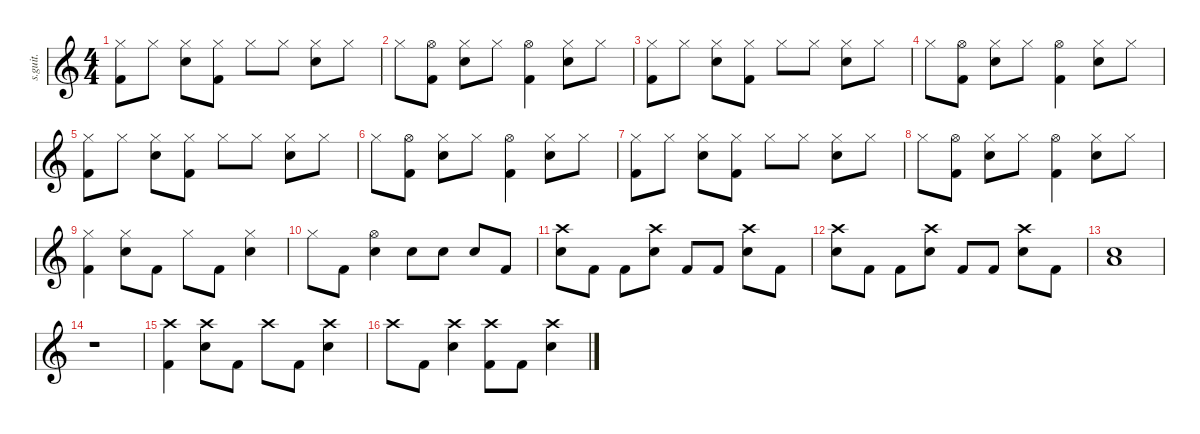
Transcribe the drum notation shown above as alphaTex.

\defaultSystemsLayout 4
\hideDynamics
\bracketExtendMode nobrackets
\track ("" "s.guit.") {instrument percussion}
\staff {score}
\articulation defaults
\ts (4 4)
\tempo (190 hide)
\clef g2
\ks c
("Hi-Hat (closed)" "Kick (hit) 2").8{dy f} "Hi-Hat (closed)".8 ("Hi-Hat (closed)" "Snare (hit) 2").8 ("Hi-Hat (closed)" "Kick (hit) 2").8 "Hi-Hat (closed)".8 "Hi-Hat (closed)".8 ("Hi-Hat (closed)" "Snare (hit) 2").8 "Hi-Hat (closed)".8 |
"Hi-Hat (closed)".8 ("Hi-Hat (open)" "Kick (hit) 2").8 ("Hi-Hat (closed)" "Snare (hit) 2").8 "Hi-Hat (closed)".8 ("Hi-Hat (open)" "Kick (hit) 2").4 ("Hi-Hat (closed)" "Snare (hit) 2").8 "Hi-Hat (closed)".8 |
("Hi-Hat (closed)" "Kick (hit) 2").8 "Hi-Hat (closed)".8 ("Hi-Hat (closed)" "Snare (hit) 2").8 ("Hi-Hat (closed)" "Kick (hit) 2").8 "Hi-Hat (closed)".8 "Hi-Hat (closed)".8 ("Hi-Hat (closed)" "Snare (hit) 2").8 "Hi-Hat (closed)".8 |
"Hi-Hat (closed)".8 ("Hi-Hat (open)" "Kick (hit) 2").8 ("Hi-Hat (closed)" "Snare (hit) 2").8 "Hi-Hat (closed)".8 ("Hi-Hat (open)" "Kick (hit) 2").4 ("Hi-Hat (closed)" "Snare (hit) 2").8 "Hi-Hat (closed)".8 |
("Hi-Hat (closed)" "Kick (hit) 2").8 "Hi-Hat (closed)".8 ("Hi-Hat (closed)" "Snare (hit) 2").8 ("Hi-Hat (closed)" "Kick (hit) 2").8 "Hi-Hat (closed)".8 "Hi-Hat (closed)".8 ("Hi-Hat (closed)" "Snare (hit) 2").8 "Hi-Hat (closed)".8 |
"Hi-Hat (closed)".8 ("Hi-Hat (open)" "Kick (hit) 2").8 ("Hi-Hat (closed)" "Snare (hit) 2").8 "Hi-Hat (closed)".8 ("Hi-Hat (open)" "Kick (hit) 2").4 ("Hi-Hat (closed)" "Snare (hit) 2").8 "Hi-Hat (closed)".8 |
("Hi-Hat (closed)" "Kick (hit) 2").8 "Hi-Hat (closed)".8 ("Hi-Hat (closed)" "Snare (hit) 2").8 ("Hi-Hat (closed)" "Kick (hit) 2").8 "Hi-Hat (closed)".8 "Hi-Hat (closed)".8 ("Hi-Hat (closed)" "Snare (hit) 2").8 "Hi-Hat (closed)".8 |
"Hi-Hat (closed)".8 ("Hi-Hat (open)" "Kick (hit) 2").8 ("Hi-Hat (closed)" "Snare (hit) 2").8 "Hi-Hat (closed)".8 ("Hi-Hat (open)" "Kick (hit) 2").4 ("Hi-Hat (closed)" "Snare (hit) 2").8 "Hi-Hat (closed)".8 |
("Hi-Hat (closed)" "Kick (hit) 2").4 ("Hi-Hat (closed)" "Snare (hit) 2").8 "Kick (hit) 2".8 "Hi-Hat (closed)".8 "Kick (hit) 2".8 ("Hi-Hat (closed)" "Snare (hit) 2").4 |
"Hi-Hat (closed)".8 "Kick (hit) 2".8 ("Hi-Hat (open)" "Snare (hit) 2").4 "Snare (hit) 2".8 "Snare (hit) 2".8 "Snare (hit) 2".8 "Kick (hit) 2".8 |
("Crash high (hit)" "Snare (hit) 2").8 "Kick (hit) 2".8 "Kick (hit) 2".8 ("Crash high (hit)" "Snare (hit) 2").8 "Kick (hit) 2".8 "Kick (hit) 2".8 ("Crash high (hit)" "Snare (hit) 2").8 "Kick (hit) 2".8 |
("Crash high (hit)" "Snare (hit) 2").8 "Kick (hit) 2".8 "Kick (hit) 2".8 ("Crash high (hit)" "Snare (hit) 2").8 "Kick (hit) 2".8 "Kick (hit) 2".8 ("Crash high (hit)" "Snare (hit) 2").8 "Kick (hit) 2".8 |
("Snare (hit) 2" "Low Floor Tom (hit)").1 |
r.1 |
("Crash high (hit)" "Kick (hit) 2").4 ("Crash high (hit)" "Snare (hit) 2").8 "Kick (hit) 2".8 "Crash high (hit)".8 "Kick (hit) 2".8 ("Crash high (hit)" "Snare (hit) 2").4 |
"Crash high (hit)".8 "Kick (hit) 2".8 ("Crash high (hit)" "Snare (hit) 2").4 ("Crash high (hit)" "Kick (hit) 2").8 "Kick (hit) 2".8 ("Crash high (hit)" "Snare (hit) 2").4
